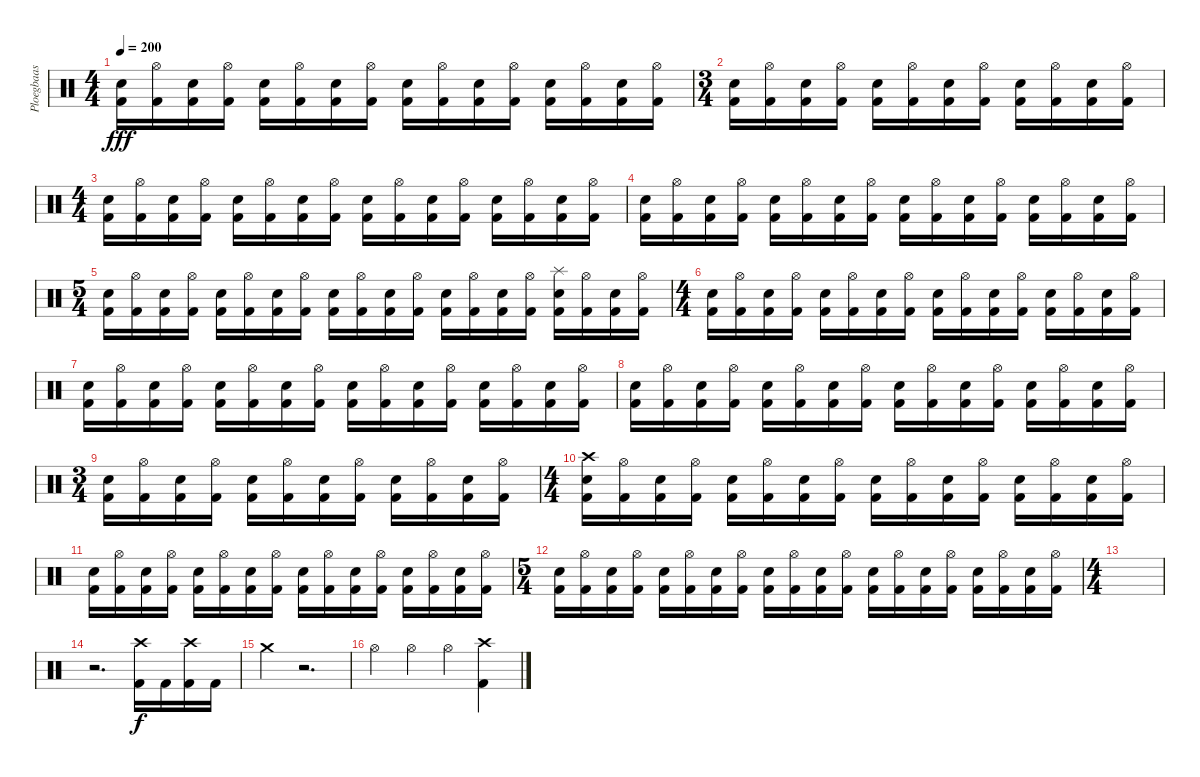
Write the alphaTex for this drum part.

\track ("Ploegbaas" "Ploegbaas") {instrument percussion}
\staff {score}
\articulation defaults
\ts (4 4)
\tempo 200
\clef neutral
\ks c
("Electric Snare (hit)" "Kick (hit) 2").16{dy fff} ("Hi-Hat (open)" "Kick (hit) 2").16 ("Electric Snare (hit)" "Kick (hit) 2").16 ("Hi-Hat (open)" "Kick (hit) 2").16 ("Electric Snare (hit)" "Kick (hit) 2").16 ("Hi-Hat (open)" "Kick (hit) 2").16 ("Electric Snare (hit)" "Kick (hit) 2").16 ("Hi-Hat (open)" "Kick (hit) 2").16 ("Electric Snare (hit)" "Kick (hit) 2").16 ("Hi-Hat (open)" "Kick (hit) 2").16 ("Electric Snare (hit)" "Kick (hit) 2").16 ("Hi-Hat (open)" "Kick (hit) 2").16 ("Electric Snare (hit)" "Kick (hit) 2").16 ("Hi-Hat (open)" "Kick (hit) 2").16 ("Electric Snare (hit)" "Kick (hit) 2").16 ("Hi-Hat (open)" "Kick (hit) 2").16 |
\ts (3 4)
("Electric Snare (hit)" "Kick (hit) 2").16 ("Hi-Hat (open)" "Kick (hit) 2").16 ("Electric Snare (hit)" "Kick (hit) 2").16 ("Hi-Hat (open)" "Kick (hit) 2").16 ("Electric Snare (hit)" "Kick (hit) 2").16 ("Hi-Hat (open)" "Kick (hit) 2").16 ("Electric Snare (hit)" "Kick (hit) 2").16 ("Hi-Hat (open)" "Kick (hit) 2").16 ("Electric Snare (hit)" "Kick (hit) 2").16 ("Hi-Hat (open)" "Kick (hit) 2").16 ("Electric Snare (hit)" "Kick (hit) 2").16 ("Hi-Hat (open)" "Kick (hit) 2").16 |
\ts (4 4)
("Electric Snare (hit)" "Kick (hit) 2").16 ("Hi-Hat (open)" "Kick (hit) 2").16 ("Electric Snare (hit)" "Kick (hit) 2").16 ("Hi-Hat (open)" "Kick (hit) 2").16 ("Electric Snare (hit)" "Kick (hit) 2").16 ("Hi-Hat (open)" "Kick (hit) 2").16 ("Electric Snare (hit)" "Kick (hit) 2").16 ("Hi-Hat (open)" "Kick (hit) 2").16 ("Electric Snare (hit)" "Kick (hit) 2").16 ("Hi-Hat (open)" "Kick (hit) 2").16 ("Electric Snare (hit)" "Kick (hit) 2").16 ("Hi-Hat (open)" "Kick (hit) 2").16 ("Electric Snare (hit)" "Kick (hit) 2").16 ("Hi-Hat (open)" "Kick (hit) 2").16 ("Electric Snare (hit)" "Kick (hit) 2").16 ("Hi-Hat (open)" "Kick (hit) 2").16 |
("Electric Snare (hit)" "Kick (hit) 2").16 ("Hi-Hat (open)" "Kick (hit) 2").16 ("Electric Snare (hit)" "Kick (hit) 2").16 ("Hi-Hat (open)" "Kick (hit) 2").16 ("Electric Snare (hit)" "Kick (hit) 2").16 ("Hi-Hat (open)" "Kick (hit) 2").16 ("Electric Snare (hit)" "Kick (hit) 2").16 ("Hi-Hat (open)" "Kick (hit) 2").16 ("Electric Snare (hit)" "Kick (hit) 2").16 ("Hi-Hat (open)" "Kick (hit) 2").16 ("Electric Snare (hit)" "Kick (hit) 2").16 ("Hi-Hat (open)" "Kick (hit) 2").16 ("Electric Snare (hit)" "Kick (hit) 2").16 ("Hi-Hat (open)" "Kick (hit) 2").16 ("Electric Snare (hit)" "Kick (hit) 2").16 ("Hi-Hat (open)" "Kick (hit) 2").16 |
\ts (5 4)
("Electric Snare (hit)" "Kick (hit) 2").16 ("Hi-Hat (open)" "Kick (hit) 2").16 ("Electric Snare (hit)" "Kick (hit) 2").16 ("Hi-Hat (open)" "Kick (hit) 2").16 ("Electric Snare (hit)" "Kick (hit) 2").16 ("Hi-Hat (open)" "Kick (hit) 2").16 ("Electric Snare (hit)" "Kick (hit) 2").16 ("Hi-Hat (open)" "Kick (hit) 2").16 ("Electric Snare (hit)" "Kick (hit) 2").16 ("Hi-Hat (open)" "Kick (hit) 2").16 ("Electric Snare (hit)" "Kick (hit) 2").16 ("Hi-Hat (open)" "Kick (hit) 2").16 ("Electric Snare (hit)" "Kick (hit) 2").16 ("Hi-Hat (open)" "Kick (hit) 2").16 ("Electric Snare (hit)" "Kick (hit) 2").16 ("Hi-Hat (open)" "Kick (hit) 2").16 ("Splash (hit)" "Electric Snare (hit)" "Kick (hit) 2").16 ("Hi-Hat (open)" "Kick (hit) 2").16 ("Electric Snare (hit)" "Kick (hit) 2").16 ("Hi-Hat (open)" "Kick (hit) 2").16 |
\ts (4 4)
("Electric Snare (hit)" "Kick (hit) 2").16 ("Hi-Hat (open)" "Kick (hit) 2").16 ("Electric Snare (hit)" "Kick (hit) 2").16 ("Hi-Hat (open)" "Kick (hit) 2").16 ("Electric Snare (hit)" "Kick (hit) 2").16 ("Hi-Hat (open)" "Kick (hit) 2").16 ("Electric Snare (hit)" "Kick (hit) 2").16 ("Hi-Hat (open)" "Kick (hit) 2").16 ("Electric Snare (hit)" "Kick (hit) 2").16 ("Hi-Hat (open)" "Kick (hit) 2").16 ("Electric Snare (hit)" "Kick (hit) 2").16 ("Hi-Hat (open)" "Kick (hit) 2").16 ("Electric Snare (hit)" "Kick (hit) 2").16 ("Hi-Hat (open)" "Kick (hit) 2").16 ("Electric Snare (hit)" "Kick (hit) 2").16 ("Hi-Hat (open)" "Kick (hit) 2").16 |
("Electric Snare (hit)" "Kick (hit) 2").16 ("Hi-Hat (open)" "Kick (hit) 2").16 ("Electric Snare (hit)" "Kick (hit) 2").16 ("Hi-Hat (open)" "Kick (hit) 2").16 ("Electric Snare (hit)" "Kick (hit) 2").16 ("Hi-Hat (open)" "Kick (hit) 2").16 ("Electric Snare (hit)" "Kick (hit) 2").16 ("Hi-Hat (open)" "Kick (hit) 2").16 ("Electric Snare (hit)" "Kick (hit) 2").16 ("Hi-Hat (open)" "Kick (hit) 2").16 ("Electric Snare (hit)" "Kick (hit) 2").16 ("Hi-Hat (open)" "Kick (hit) 2").16 ("Electric Snare (hit)" "Kick (hit) 2").16 ("Hi-Hat (open)" "Kick (hit) 2").16 ("Electric Snare (hit)" "Kick (hit) 2").16 ("Hi-Hat (open)" "Kick (hit) 2").16 |
("Electric Snare (hit)" "Kick (hit) 2").16 ("Hi-Hat (open)" "Kick (hit) 2").16 ("Electric Snare (hit)" "Kick (hit) 2").16 ("Hi-Hat (open)" "Kick (hit) 2").16 ("Electric Snare (hit)" "Kick (hit) 2").16 ("Hi-Hat (open)" "Kick (hit) 2").16 ("Electric Snare (hit)" "Kick (hit) 2").16 ("Hi-Hat (open)" "Kick (hit) 2").16 ("Electric Snare (hit)" "Kick (hit) 2").16 ("Hi-Hat (open)" "Kick (hit) 2").16 ("Electric Snare (hit)" "Kick (hit) 2").16 ("Hi-Hat (open)" "Kick (hit) 2").16 ("Electric Snare (hit)" "Kick (hit) 2").16 ("Hi-Hat (open)" "Kick (hit) 2").16 ("Electric Snare (hit)" "Kick (hit) 2").16 ("Hi-Hat (open)" "Kick (hit) 2").16 |
\ts (3 4)
("Electric Snare (hit)" "Kick (hit) 2").16 ("Hi-Hat (open)" "Kick (hit) 2").16 ("Electric Snare (hit)" "Kick (hit) 2").16 ("Hi-Hat (open)" "Kick (hit) 2").16 ("Electric Snare (hit)" "Kick (hit) 2").16 ("Hi-Hat (open)" "Kick (hit) 2").16 ("Electric Snare (hit)" "Kick (hit) 2").16 ("Hi-Hat (open)" "Kick (hit) 2").16 ("Electric Snare (hit)" "Kick (hit) 2").16 ("Hi-Hat (open)" "Kick (hit) 2").16 ("Electric Snare (hit)" "Kick (hit) 2").16 ("Hi-Hat (open)" "Kick (hit) 2").16 |
\ts (4 4)
("Crash high (hit)" "Electric Snare (hit)" "Kick (hit) 2").16 ("Hi-Hat (open)" "Kick (hit) 2").16 ("Electric Snare (hit)" "Kick (hit) 2").16 ("Hi-Hat (open)" "Kick (hit) 2").16 ("Electric Snare (hit)" "Kick (hit) 2").16 ("Hi-Hat (open)" "Kick (hit) 2").16 ("Electric Snare (hit)" "Kick (hit) 2").16 ("Hi-Hat (open)" "Kick (hit) 2").16 ("Electric Snare (hit)" "Kick (hit) 2").16 ("Hi-Hat (open)" "Kick (hit) 2").16 ("Electric Snare (hit)" "Kick (hit) 2").16 ("Hi-Hat (open)" "Kick (hit) 2").16 ("Electric Snare (hit)" "Kick (hit) 2").16 ("Hi-Hat (open)" "Kick (hit) 2").16 ("Electric Snare (hit)" "Kick (hit) 2").16 ("Hi-Hat (open)" "Kick (hit) 2").16 |
("Electric Snare (hit)" "Kick (hit) 2").16 ("Hi-Hat (open)" "Kick (hit) 2").16 ("Electric Snare (hit)" "Kick (hit) 2").16 ("Hi-Hat (open)" "Kick (hit) 2").16 ("Electric Snare (hit)" "Kick (hit) 2").16 ("Hi-Hat (open)" "Kick (hit) 2").16 ("Electric Snare (hit)" "Kick (hit) 2").16 ("Hi-Hat (open)" "Kick (hit) 2").16 ("Electric Snare (hit)" "Kick (hit) 2").16 ("Hi-Hat (open)" "Kick (hit) 2").16 ("Electric Snare (hit)" "Kick (hit) 2").16 ("Hi-Hat (open)" "Kick (hit) 2").16 ("Electric Snare (hit)" "Kick (hit) 2").16 ("Hi-Hat (open)" "Kick (hit) 2").16 ("Electric Snare (hit)" "Kick (hit) 2").16 ("Hi-Hat (open)" "Kick (hit) 2").16 |
\ts (5 4)
("Electric Snare (hit)" "Kick (hit) 2").16 ("Hi-Hat (open)" "Kick (hit) 2").16 ("Electric Snare (hit)" "Kick (hit) 2").16 ("Hi-Hat (open)" "Kick (hit) 2").16 ("Electric Snare (hit)" "Kick (hit) 2").16 ("Hi-Hat (open)" "Kick (hit) 2").16 ("Electric Snare (hit)" "Kick (hit) 2").16 ("Hi-Hat (open)" "Kick (hit) 2").16 ("Electric Snare (hit)" "Kick (hit) 2").16 ("Hi-Hat (open)" "Kick (hit) 2").16 ("Electric Snare (hit)" "Kick (hit) 2").16 ("Hi-Hat (open)" "Kick (hit) 2").16 ("Electric Snare (hit)" "Kick (hit) 2").16 ("Hi-Hat (open)" "Kick (hit) 2").16 ("Electric Snare (hit)" "Kick (hit) 2").16 ("Hi-Hat (open)" "Kick (hit) 2").16 ("Electric Snare (hit)" "Kick (hit) 2").16 ("Hi-Hat (open)" "Kick (hit) 2").16 ("Electric Snare (hit)" "Kick (hit) 2").16 ("Hi-Hat (open)" "Kick (hit) 2").16 |
\ts (4 4)
|
r.2{d} ("Crash high (hit)" "Kick (hit) 2").16{dy f} "Kick (hit) 2".16 ("Crash high (hit)" "Kick (hit) 2").16 "Kick (hit) 2".16 |
"Crash medium (hit)".4 r.2{d volume 0} |
"Hi-Hat (open)".4{volume 16} "Hi-Hat (open)".4 "Hi-Hat (open)".4 ("Crash high (hit)" "Kick (hit) 2").4
